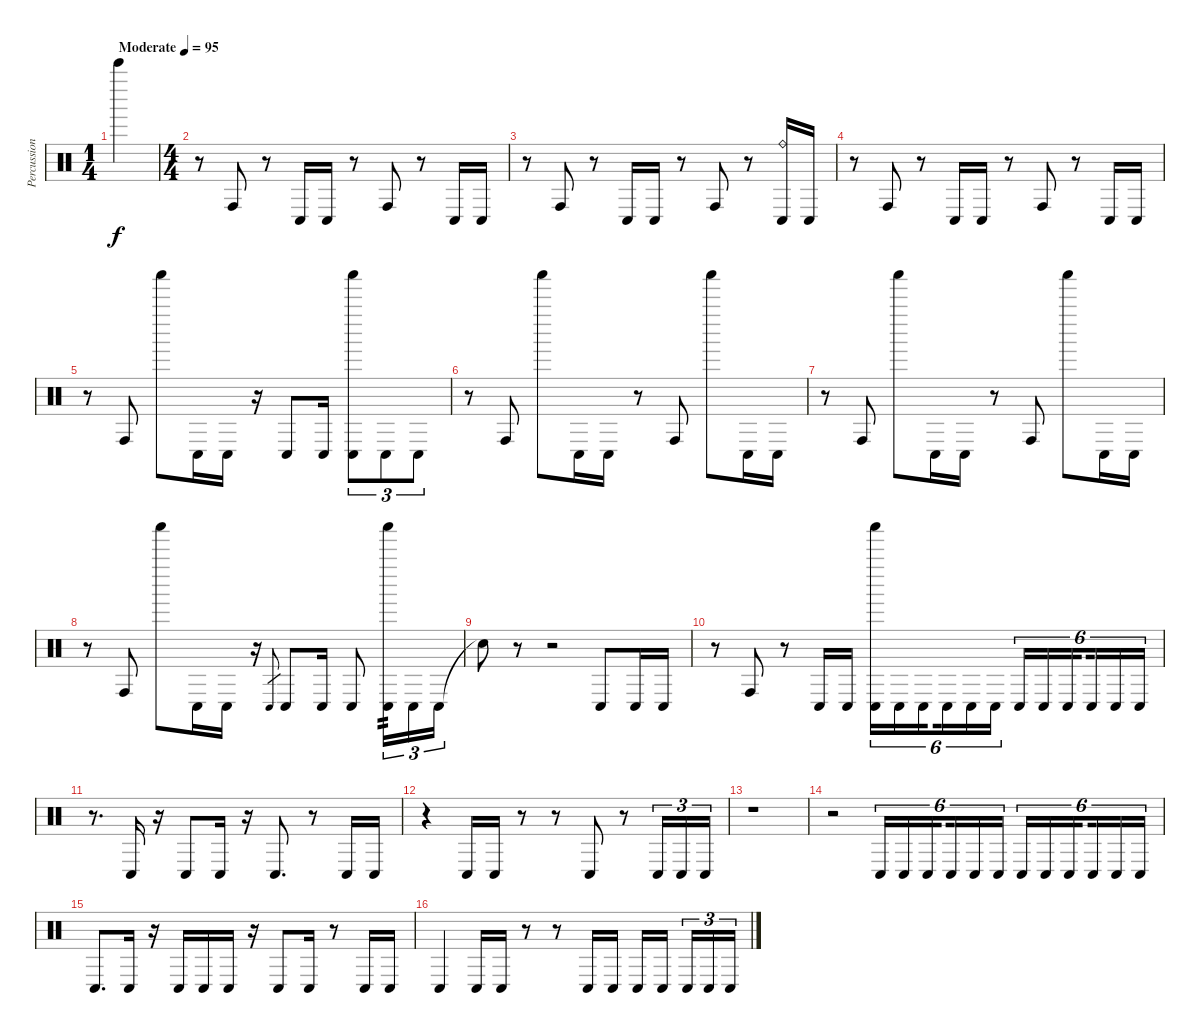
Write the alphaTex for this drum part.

\track ("Percussion" "Percussion") {instrument percussion}
\staff {score}
\articulation defaults
\ts (1 4)
\tempo (95 "Moderate")
\clef neutral
\ks c "Bell Tree (hit)".4{dy f}
|
\ts (4 4)
r.8 "Conga high (hit)".8 r.8 "Conga low (hit)".16 "Conga low (hit)".16 r.8 "Conga high (hit)".8 r.8 "Conga low (hit)".16 "Conga low (hit)".16 |
r.8 "Conga high (hit)".8 r.8 "Conga low (hit)".16 "Conga low (hit)".16 r.8 "Conga high (hit)".8 r.8 ("Ride (bell)" "Conga low (hit)").16 "Conga low (hit)".16 |
r.8 "Conga high (hit)".8 r.8 "Conga low (hit)".16 "Conga low (hit)".16 r.8 "Conga high (hit)".8 r.8 "Conga low (hit)".16 "Conga low (hit)".16 |
r.8 "Conga high (hit)".8 "Shaker (hit)".8 "Conga low (hit)".16 "Conga low (hit)".16 r.16 "Conga low (hit)".8 "Conga low (hit)".16 ("Shaker (hit)" "Conga low (hit)").8{tu (3 2)} "Conga low (hit)".8{tu (3 2)} "Conga low (hit)".8{tu (3 2)} |
r.8 "Conga high (hit)".8 "Shaker (hit)".8 "Conga low (hit)".16 "Conga low (hit)".16 r.8 "Conga high (hit)".8 "Shaker (hit)".8 "Conga low (hit)".16 "Conga low (hit)".16 |
r.8 "Conga high (hit)".8 "Shaker (hit)".8 "Conga low (hit)".16 "Conga low (hit)".16 r.8 "Conga high (hit)".8 "Shaker (hit)".8 "Conga low (hit)".16 "Conga low (hit)".16 |
r.8 "Conga high (hit)".8 "Shaker (hit)".8 "Conga low (hit)".16 "Conga low (hit)".16 r.16 "Conga low (hit)".8{gr} "Conga low (hit)".8 "Conga low (hit)".16 "Conga low (hit)".8 ("Shaker (hit)" "Conga low (hit)").16{tu (3 2) tp 2} "Conga low (hit)".16{tu (3 2)} "Conga low (hit)".16{tu (3 2)} |
"Snare (hit)"{t}.8 r.8 r.2 "Conga low (hit)".8 "Conga low (hit)".16 "Conga low (hit)".16 |
r.8 "Conga high (hit)".8 r.8 "Conga low (hit)".16 "Conga low (hit)".16 ("Shaker (hit)" "Conga low (hit)").16{tu (6 4)} "Conga low (hit)".16{tu (6 4)} "Conga low (hit)".16{tu (6 4) beam splitsecondary} "Conga low (hit)".16{tu (6 4)} "Conga low (hit)".16{tu (6 4)} "Conga low (hit)".16{tu (6 4)} "Conga low (hit)".16{tu (6 4)} "Conga low (hit)".16{tu (6 4)} "Conga low (hit)".16{tu (6 4) beam splitsecondary} "Conga low (hit)".16{tu (6 4)} "Conga low (hit)".16{tu (6 4)} "Conga low (hit)".16{tu (6 4)} |
r.8{d} "Conga low (hit)".16 r.16 "Conga low (hit)".8 "Conga low (hit)".16 r.16 "Conga low (hit)".8{d} r.8 "Conga low (hit)".16 "Conga low (hit)".16 |
r.4 "Conga low (hit)".16 "Conga low (hit)".16 r.8 r.8 "Conga low (hit)".8 r.8 "Conga low (hit)".16{tu (3 2)} "Conga low (hit)".16{tu (3 2)} "Conga low (hit)".16{tu (3 2)} |
r.1 |
r.2 "Conga low (hit)".16{tu (6 4)} "Conga low (hit)".16{tu (6 4)} "Conga low (hit)".16{tu (6 4) beam splitsecondary} "Conga low (hit)".16{tu (6 4)} "Conga low (hit)".16{tu (6 4)} "Conga low (hit)".16{tu (6 4)} "Conga low (hit)".16{tu (6 4)} "Conga low (hit)".16{tu (6 4)} "Conga low (hit)".16{tu (6 4) beam splitsecondary} "Conga low (hit)".16{tu (6 4)} "Conga low (hit)".16{tu (6 4)} "Conga low (hit)".16{tu (6 4)} |
"Conga low (hit)".8{d} "Conga low (hit)".16 r.16 "Conga low (hit)".16 "Conga low (hit)".16 "Conga low (hit)".16 r.16 "Conga low (hit)".8 "Conga low (hit)".16 r.8 "Conga low (hit)".16 "Conga low (hit)".16 |
"Conga low (hit)".4 "Conga low (hit)".16 "Conga low (hit)".16 r.8 r.8 "Conga low (hit)".16 "Conga low (hit)".16 "Conga low (hit)".16 "Conga low (hit)".16{beam splitsecondary} "Conga low (hit)".16{tu (3 2)} "Conga low (hit)".16{tu (3 2)} "Conga low (hit)".16{tu (3 2)}
